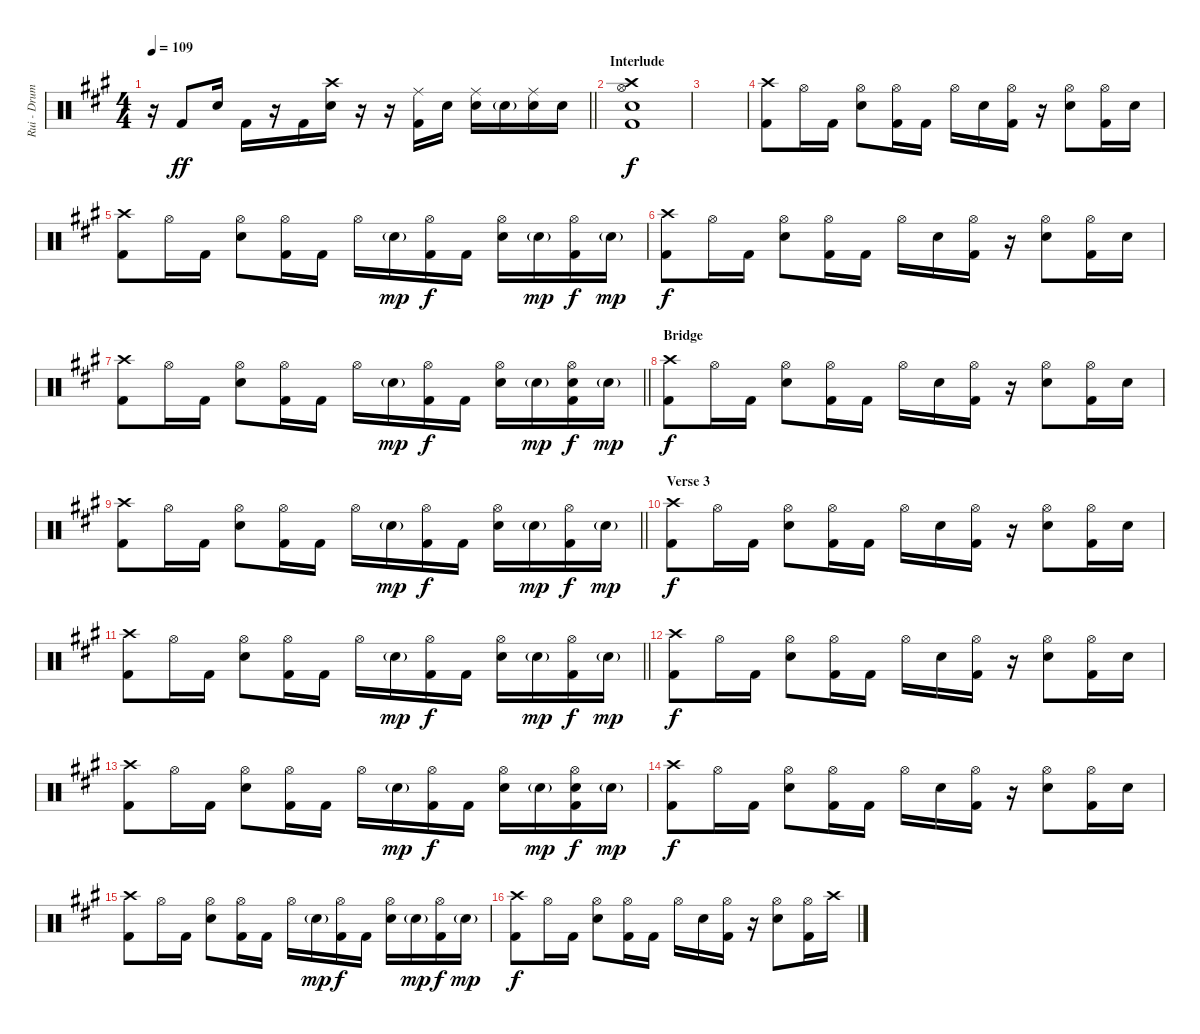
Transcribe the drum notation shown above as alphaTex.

\track ("Rui - Drums" "Rui - Drum") {instrument percussion}
\staff {score}
\articulation defaults
\ts (4 4)
\tempo 109
\clef neutral
\barLineRight lightlight
\ks f#minor
r.16{dy ff} "Kick (hit) 2".8 "Electric Snare (hit)".16 "Kick (hit) 2".16 r.16 "Kick (hit) 2".16 ("Crash high (hit)" "Electric Snare (hit)").16 r.16 r.16 ("Ride (middle)" "Kick (hit) 2").16 "Electric Snare (hit)".16 ("Ride (middle)" "Electric Snare (hit)").16 "Electric Snare (hit)"{g}.16 ("Ride (middle)" "Electric Snare (hit)").16 "Electric Snare (hit)".16 |
\section ("" "Interlude")
("Crash high (hit)" "Kick (hit) 2" "Electric Snare (hit)" "Hi-Hat (open)").1{dy f} |
|
("Crash high (hit)" "Kick (hit) 2").8 "Hi-Hat (open)".16 "Kick (hit) 2".16 ("Hi-Hat (open)" "Electric Snare (hit)").8 ("Hi-Hat (open)" "Kick (hit) 2").16 "Kick (hit) 2".16 "Hi-Hat (open)".16 "Electric Snare (hit)".16 ("Hi-Hat (open)" "Kick (hit) 2").16 r.16 ("Hi-Hat (open)" "Electric Snare (hit)").8 ("Hi-Hat (open)" "Kick (hit) 2").16 "Electric Snare (hit)".16 |
("Crash high (hit)" "Kick (hit) 2").8 "Hi-Hat (open)".16 "Kick (hit) 2".16 ("Hi-Hat (open)" "Electric Snare (hit)").8 ("Hi-Hat (open)" "Kick (hit) 2").16 "Kick (hit) 2".16 "Hi-Hat (open)".16 "Electric Snare (hit)"{g}.16{dy mp} ("Hi-Hat (open)" "Kick (hit) 2").16{dy f} "Kick (hit) 2".16 ("Hi-Hat (open)" "Electric Snare (hit)").16 "Electric Snare (hit)"{g}.16{dy mp} ("Hi-Hat (open)" "Kick (hit) 2").16{dy f} "Electric Snare (hit)"{g}.16{dy mp} |
("Crash high (hit)" "Kick (hit) 2").8{dy f} "Hi-Hat (open)".16 "Kick (hit) 2".16 ("Hi-Hat (open)" "Electric Snare (hit)").8 ("Hi-Hat (open)" "Kick (hit) 2").16 "Kick (hit) 2".16 "Hi-Hat (open)".16 "Electric Snare (hit)".16 ("Hi-Hat (open)" "Kick (hit) 2").16 r.16 ("Hi-Hat (open)" "Electric Snare (hit)").8 ("Hi-Hat (open)" "Kick (hit) 2").16 "Electric Snare (hit)".16 |
\barLineRight lightlight
("Crash high (hit)" "Kick (hit) 2").8 "Hi-Hat (open)".16 "Kick (hit) 2".16 ("Hi-Hat (open)" "Electric Snare (hit)").8 ("Hi-Hat (open)" "Kick (hit) 2").16 "Kick (hit) 2".16 "Hi-Hat (open)".16 "Electric Snare (hit)"{g}.16{dy mp} ("Hi-Hat (open)" "Kick (hit) 2").16{dy f} "Kick (hit) 2".16 ("Hi-Hat (open)" "Electric Snare (hit)").16 "Electric Snare (hit)"{g}.16{dy mp} ("Hi-Hat (open)" "Electric Snare (hit)" "Kick (hit) 2").16{dy f} "Electric Snare (hit)"{g}.16{dy mp} |
\section ("" "Bridge")
("Crash high (hit)" "Kick (hit) 2").8{dy f} "Hi-Hat (open)".16 "Kick (hit) 2".16 ("Hi-Hat (open)" "Electric Snare (hit)").8 ("Hi-Hat (open)" "Kick (hit) 2").16 "Kick (hit) 2".16 "Hi-Hat (open)".16 "Electric Snare (hit)".16 ("Hi-Hat (open)" "Kick (hit) 2").16 r.16 ("Hi-Hat (open)" "Electric Snare (hit)").8 ("Hi-Hat (open)" "Kick (hit) 2").16 "Electric Snare (hit)".16 |
\barLineRight lightlight
("Crash high (hit)" "Kick (hit) 2").8 "Hi-Hat (open)".16 "Kick (hit) 2".16 ("Hi-Hat (open)" "Electric Snare (hit)").8 ("Hi-Hat (open)" "Kick (hit) 2").16 "Kick (hit) 2".16 "Hi-Hat (open)".16 "Electric Snare (hit)"{g}.16{dy mp} ("Hi-Hat (open)" "Kick (hit) 2").16{dy f} "Kick (hit) 2".16 ("Hi-Hat (open)" "Electric Snare (hit)").16 "Electric Snare (hit)"{g}.16{dy mp} ("Hi-Hat (open)" "Kick (hit) 2").16{dy f} "Electric Snare (hit)"{g}.16{dy mp} |
\section ("" "Verse 3")
("Crash high (hit)" "Kick (hit) 2").8{dy f} "Hi-Hat (open)".16 "Kick (hit) 2".16 ("Hi-Hat (open)" "Electric Snare (hit)").8 ("Hi-Hat (open)" "Kick (hit) 2").16 "Kick (hit) 2".16 "Hi-Hat (open)".16 "Electric Snare (hit)".16 ("Hi-Hat (open)" "Kick (hit) 2").16 r.16 ("Hi-Hat (open)" "Electric Snare (hit)").8 ("Hi-Hat (open)" "Kick (hit) 2").16 "Electric Snare (hit)".16 |
\barLineRight lightlight
("Crash high (hit)" "Kick (hit) 2").8 "Hi-Hat (open)".16 "Kick (hit) 2".16 ("Hi-Hat (open)" "Electric Snare (hit)").8 ("Hi-Hat (open)" "Kick (hit) 2").16 "Kick (hit) 2".16 "Hi-Hat (open)".16 "Electric Snare (hit)"{g}.16{dy mp} ("Hi-Hat (open)" "Kick (hit) 2").16{dy f} "Kick (hit) 2".16 ("Hi-Hat (open)" "Electric Snare (hit)").16 "Electric Snare (hit)"{g}.16{dy mp} ("Hi-Hat (open)" "Kick (hit) 2").16{dy f} "Electric Snare (hit)"{g}.16{dy mp} |
("Crash high (hit)" "Kick (hit) 2").8{dy f} "Hi-Hat (open)".16 "Kick (hit) 2".16 ("Hi-Hat (open)" "Electric Snare (hit)").8 ("Hi-Hat (open)" "Kick (hit) 2").16 "Kick (hit) 2".16 "Hi-Hat (open)".16 "Electric Snare (hit)".16 ("Hi-Hat (open)" "Kick (hit) 2").16 r.16 ("Hi-Hat (open)" "Electric Snare (hit)").8 ("Hi-Hat (open)" "Kick (hit) 2").16 "Electric Snare (hit)".16 |
("Crash high (hit)" "Kick (hit) 2").8 "Hi-Hat (open)".16 "Kick (hit) 2".16 ("Hi-Hat (open)" "Electric Snare (hit)").8 ("Hi-Hat (open)" "Kick (hit) 2").16 "Kick (hit) 2".16 "Hi-Hat (open)".16 "Electric Snare (hit)"{g}.16{dy mp} ("Hi-Hat (open)" "Kick (hit) 2").16{dy f} "Kick (hit) 2".16 ("Hi-Hat (open)" "Electric Snare (hit)").16 "Electric Snare (hit)"{g}.16{dy mp} ("Hi-Hat (open)" "Electric Snare (hit)" "Kick (hit) 2").16{dy f} "Electric Snare (hit)"{g}.16{dy mp} |
("Crash high (hit)" "Kick (hit) 2").8{dy f} "Hi-Hat (open)".16 "Kick (hit) 2".16 ("Hi-Hat (open)" "Electric Snare (hit)").8 ("Hi-Hat (open)" "Kick (hit) 2").16 "Kick (hit) 2".16 "Hi-Hat (open)".16 "Electric Snare (hit)".16 ("Hi-Hat (open)" "Kick (hit) 2").16 r.16 ("Hi-Hat (open)" "Electric Snare (hit)").8 ("Hi-Hat (open)" "Kick (hit) 2").16 "Electric Snare (hit)".16 |
("Crash high (hit)" "Kick (hit) 2").8 "Hi-Hat (open)".16 "Kick (hit) 2".16 ("Hi-Hat (open)" "Electric Snare (hit)").8 ("Hi-Hat (open)" "Kick (hit) 2").16 "Kick (hit) 2".16 "Hi-Hat (open)".16 "Electric Snare (hit)"{g}.16{dy mp} ("Hi-Hat (open)" "Kick (hit) 2").16{dy f} "Kick (hit) 2".16 ("Hi-Hat (open)" "Electric Snare (hit)").16 "Electric Snare (hit)"{g}.16{dy mp} ("Hi-Hat (open)" "Kick (hit) 2").16{dy f} "Electric Snare (hit)"{g}.16{dy mp} |
("Crash high (hit)" "Kick (hit) 2").8{dy f} "Hi-Hat (open)".16 "Kick (hit) 2".16 ("Hi-Hat (open)" "Electric Snare (hit)").8 ("Hi-Hat (open)" "Kick (hit) 2").16 "Kick (hit) 2".16 "Hi-Hat (open)".16 "Electric Snare (hit)".16 ("Hi-Hat (open)" "Kick (hit) 2").16 r.16 ("Hi-Hat (open)" "Electric Snare (hit)").8 ("Hi-Hat (open)" "Kick (hit) 2").16 "Crash high (hit)".16
